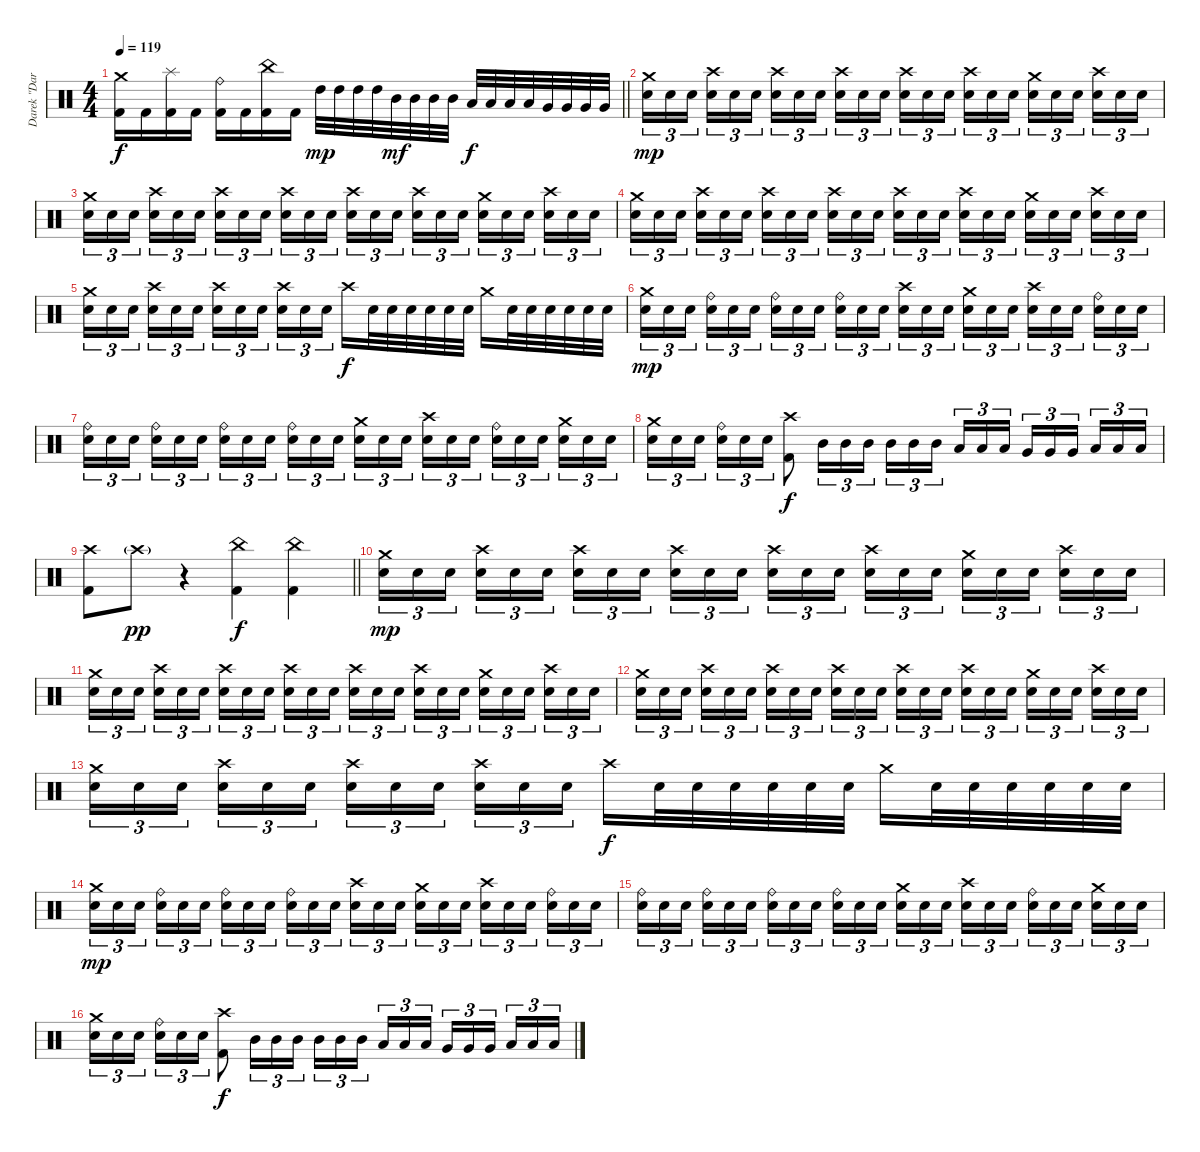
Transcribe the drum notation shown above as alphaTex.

\track ("Darek \"Daray\" Brzozowski " "Darek \"Dar") {instrument percussion}
\staff {score}
\articulation defaults
\ts (4 4)
\tempo 119
\clef neutral
\barLineRight lightlight
\ks c
("Crash medium (hit)" "Kick (hit) 2").16{dy f} "Kick (hit) 2".16 ("Splash (hit)" "Kick (hit) 2").16 "Kick (hit) 2".16 ("Ride (bell)" "Kick (hit) 2").16 "Kick (hit) 2".16 ("China (hit)" "Kick (hit) 2").16 "Kick (hit) 2".16 "High Tom (hit)".32{dy mp} "High Tom (hit)".32 "High Tom (hit)".32 "High Tom (hit)".32 "Mid Tom (hit)".32{dy mf} "Mid Tom (hit)".32 "Mid Tom (hit)".32 "Mid Tom (hit)".32 "Low Tom (hit)".32{dy f} "Low Tom (hit)".32 "Low Tom (hit)".32 "Low Tom (hit)".32 "Very Low Tom (hit)".32 "Very Low Tom (hit)".32 "Very Low Tom (hit)".32 "Very Low Tom (hit)".32 |
("Crash medium (hit)" "Electric Snare (hit)").16{tu (3 2) dy mp} "Electric Snare (hit)".16{tu (3 2)} "Electric Snare (hit)".16{tu (3 2) beam splitsecondary} ("Crash high (hit)" "Electric Snare (hit)").16{tu (3 2)} "Electric Snare (hit)".16{tu (3 2)} "Electric Snare (hit)".16{tu (3 2)} ("Crash high (hit)" "Electric Snare (hit)").16{tu (3 2)} "Electric Snare (hit)".16{tu (3 2)} "Electric Snare (hit)".16{tu (3 2) beam splitsecondary} ("Crash high (hit)" "Electric Snare (hit)").16{tu (3 2)} "Electric Snare (hit)".16{tu (3 2)} "Electric Snare (hit)".16{tu (3 2)} ("Crash high (hit)" "Electric Snare (hit)").16{tu (3 2)} "Electric Snare (hit)".16{tu (3 2)} "Electric Snare (hit)".16{tu (3 2) beam splitsecondary} ("Crash high (hit)" "Electric Snare (hit)").16{tu (3 2)} "Electric Snare (hit)".16{tu (3 2)} "Electric Snare (hit)".16{tu (3 2)} ("Crash medium (hit)" "Electric Snare (hit)").16{tu (3 2)} "Electric Snare (hit)".16{tu (3 2)} "Electric Snare (hit)".16{tu (3 2) beam splitsecondary} ("Crash high (hit)" "Electric Snare (hit)").16{tu (3 2)} "Electric Snare (hit)".16{tu (3 2)} "Electric Snare (hit)".16{tu (3 2)} |
("Crash medium (hit)" "Electric Snare (hit)").16{tu (3 2)} "Electric Snare (hit)".16{tu (3 2)} "Electric Snare (hit)".16{tu (3 2) beam splitsecondary} ("Crash high (hit)" "Electric Snare (hit)").16{tu (3 2)} "Electric Snare (hit)".16{tu (3 2)} "Electric Snare (hit)".16{tu (3 2)} ("Crash high (hit)" "Electric Snare (hit)").16{tu (3 2)} "Electric Snare (hit)".16{tu (3 2)} "Electric Snare (hit)".16{tu (3 2) beam splitsecondary} ("Crash high (hit)" "Electric Snare (hit)").16{tu (3 2)} "Electric Snare (hit)".16{tu (3 2)} "Electric Snare (hit)".16{tu (3 2)} ("Crash high (hit)" "Electric Snare (hit)").16{tu (3 2)} "Electric Snare (hit)".16{tu (3 2)} "Electric Snare (hit)".16{tu (3 2) beam splitsecondary} ("Crash high (hit)" "Electric Snare (hit)").16{tu (3 2)} "Electric Snare (hit)".16{tu (3 2)} "Electric Snare (hit)".16{tu (3 2)} ("Crash medium (hit)" "Electric Snare (hit)").16{tu (3 2)} "Electric Snare (hit)".16{tu (3 2)} "Electric Snare (hit)".16{tu (3 2) beam splitsecondary} ("Crash high (hit)" "Electric Snare (hit)").16{tu (3 2)} "Electric Snare (hit)".16{tu (3 2)} "Electric Snare (hit)".16{tu (3 2)} |
("Crash medium (hit)" "Electric Snare (hit)").16{tu (3 2)} "Electric Snare (hit)".16{tu (3 2)} "Electric Snare (hit)".16{tu (3 2) beam splitsecondary} ("Crash high (hit)" "Electric Snare (hit)").16{tu (3 2)} "Electric Snare (hit)".16{tu (3 2)} "Electric Snare (hit)".16{tu (3 2)} ("Crash high (hit)" "Electric Snare (hit)").16{tu (3 2)} "Electric Snare (hit)".16{tu (3 2)} "Electric Snare (hit)".16{tu (3 2) beam splitsecondary} ("Crash high (hit)" "Electric Snare (hit)").16{tu (3 2)} "Electric Snare (hit)".16{tu (3 2)} "Electric Snare (hit)".16{tu (3 2)} ("Crash high (hit)" "Electric Snare (hit)").16{tu (3 2)} "Electric Snare (hit)".16{tu (3 2)} "Electric Snare (hit)".16{tu (3 2) beam splitsecondary} ("Crash high (hit)" "Electric Snare (hit)").16{tu (3 2)} "Electric Snare (hit)".16{tu (3 2)} "Electric Snare (hit)".16{tu (3 2)} ("Crash medium (hit)" "Electric Snare (hit)").16{tu (3 2)} "Electric Snare (hit)".16{tu (3 2)} "Electric Snare (hit)".16{tu (3 2) beam splitsecondary} ("Crash high (hit)" "Electric Snare (hit)").16{tu (3 2)} "Electric Snare (hit)".16{tu (3 2)} "Electric Snare (hit)".16{tu (3 2)} |
("Crash medium (hit)" "Electric Snare (hit)").16{tu (3 2)} "Electric Snare (hit)".16{tu (3 2)} "Electric Snare (hit)".16{tu (3 2) beam splitsecondary} ("Crash high (hit)" "Electric Snare (hit)").16{tu (3 2)} "Electric Snare (hit)".16{tu (3 2)} "Electric Snare (hit)".16{tu (3 2)} ("Crash high (hit)" "Electric Snare (hit)").16{tu (3 2)} "Electric Snare (hit)".16{tu (3 2)} "Electric Snare (hit)".16{tu (3 2) beam splitsecondary} ("Crash high (hit)" "Electric Snare (hit)").16{tu (3 2)} "Electric Snare (hit)".16{tu (3 2)} "Electric Snare (hit)".16{tu (3 2)} "Crash high (hit)".16{dy f} "Electric Snare (hit)".32 "Electric Snare (hit)".32 "Electric Snare (hit)".32 "Electric Snare (hit)".32 "Electric Snare (hit)".32 "Electric Snare (hit)".32 "Crash medium (hit)".16 "Electric Snare (hit)".32 "Electric Snare (hit)".32 "Electric Snare (hit)".32 "Electric Snare (hit)".32 "Electric Snare (hit)".32 "Electric Snare (hit)".32 |
("Crash medium (hit)" "Electric Snare (hit)").16{tu (3 2) dy mp} "Electric Snare (hit)".16{tu (3 2)} "Electric Snare (hit)".16{tu (3 2) beam splitsecondary} ("Ride (bell)" "Electric Snare (hit)").16{tu (3 2)} "Electric Snare (hit)".16{tu (3 2)} "Electric Snare (hit)".16{tu (3 2)} ("Ride (bell)" "Electric Snare (hit)").16{tu (3 2)} "Electric Snare (hit)".16{tu (3 2)} "Electric Snare (hit)".16{tu (3 2) beam splitsecondary} ("Ride (bell)" "Electric Snare (hit)").16{tu (3 2)} "Electric Snare (hit)".16{tu (3 2)} "Electric Snare (hit)".16{tu (3 2)} ("Crash high (hit)" "Electric Snare (hit)").16{tu (3 2)} "Electric Snare (hit)".16{tu (3 2)} "Electric Snare (hit)".16{tu (3 2) beam splitsecondary} ("Crash medium (hit)" "Electric Snare (hit)").16{tu (3 2)} "Electric Snare (hit)".16{tu (3 2)} "Electric Snare (hit)".16{tu (3 2)} ("Crash high (hit)" "Electric Snare (hit)").16{tu (3 2)} "Electric Snare (hit)".16{tu (3 2)} "Electric Snare (hit)".16{tu (3 2) beam splitsecondary} ("Ride (bell)" "Electric Snare (hit)").16{tu (3 2)} "Electric Snare (hit)".16{tu (3 2)} "Electric Snare (hit)".16{tu (3 2)} |
("Ride (bell)" "Electric Snare (hit)").16{tu (3 2)} "Electric Snare (hit)".16{tu (3 2)} "Electric Snare (hit)".16{tu (3 2) beam splitsecondary} ("Ride (bell)" "Electric Snare (hit)").16{tu (3 2)} "Electric Snare (hit)".16{tu (3 2)} "Electric Snare (hit)".16{tu (3 2)} ("Ride (bell)" "Electric Snare (hit)").16{tu (3 2)} "Electric Snare (hit)".16{tu (3 2)} "Electric Snare (hit)".16{tu (3 2) beam splitsecondary} ("Ride (bell)" "Electric Snare (hit)").16{tu (3 2)} "Electric Snare (hit)".16{tu (3 2)} "Electric Snare (hit)".16{tu (3 2)} ("Crash medium (hit)" "Electric Snare (hit)").16{tu (3 2)} "Electric Snare (hit)".16{tu (3 2)} "Electric Snare (hit)".16{tu (3 2) beam splitsecondary} ("Crash high (hit)" "Electric Snare (hit)").16{tu (3 2)} "Electric Snare (hit)".16{tu (3 2)} "Electric Snare (hit)".16{tu (3 2)} ("Ride (bell)" "Electric Snare (hit)").16{tu (3 2)} "Electric Snare (hit)".16{tu (3 2)} "Electric Snare (hit)".16{tu (3 2) beam splitsecondary} ("Crash medium (hit)" "Electric Snare (hit)").16{tu (3 2)} "Electric Snare (hit)".16{tu (3 2)} "Electric Snare (hit)".16{tu (3 2)} |
("Crash medium (hit)" "Electric Snare (hit)").16{tu (3 2)} "Electric Snare (hit)".16{tu (3 2)} "Electric Snare (hit)".16{tu (3 2) beam splitsecondary} ("Ride (bell)" "Electric Snare (hit)").16{tu (3 2)} "Electric Snare (hit)".16{tu (3 2)} "Electric Snare (hit)".16{tu (3 2)} ("Crash high (hit)" "Kick (hit) 2").8{dy f} "Mid Tom (hit)".16{tu (3 2)} "Mid Tom (hit)".16{tu (3 2)} "Mid Tom (hit)".16{tu (3 2)} "Mid Tom (hit)".16{tu (3 2)} "Mid Tom (hit)".16{tu (3 2)} "Mid Tom (hit)".16{tu (3 2) beam splitsecondary} "Low Tom (hit)".16{tu (3 2)} "Low Tom (hit)".16{tu (3 2)} "Low Tom (hit)".16{tu (3 2)} "Very Low Tom (hit)".16{tu (3 2)} "Very Low Tom (hit)".16{tu (3 2)} "Very Low Tom (hit)".16{tu (3 2) beam splitsecondary} "Low Floor Tom (hit)".16{tu (3 2)} "Low Floor Tom (hit)".16{tu (3 2)} "Low Floor Tom (hit)".16{tu (3 2)} |
\barLineRight lightlight
("Crash high (hit)" "Kick (hit) 2").8 "Crash high (hit)"{g}.8{dy pp} r.4 ("China (hit)" "Kick (hit) 2").4{dy f} ("China (hit)" "Kick (hit) 2").4 |
("Crash medium (hit)" "Electric Snare (hit)").16{tu (3 2) dy mp} "Electric Snare (hit)".16{tu (3 2)} "Electric Snare (hit)".16{tu (3 2) beam splitsecondary} ("Crash high (hit)" "Electric Snare (hit)").16{tu (3 2)} "Electric Snare (hit)".16{tu (3 2)} "Electric Snare (hit)".16{tu (3 2)} ("Crash high (hit)" "Electric Snare (hit)").16{tu (3 2)} "Electric Snare (hit)".16{tu (3 2)} "Electric Snare (hit)".16{tu (3 2) beam splitsecondary} ("Crash high (hit)" "Electric Snare (hit)").16{tu (3 2)} "Electric Snare (hit)".16{tu (3 2)} "Electric Snare (hit)".16{tu (3 2)} ("Crash high (hit)" "Electric Snare (hit)").16{tu (3 2)} "Electric Snare (hit)".16{tu (3 2)} "Electric Snare (hit)".16{tu (3 2) beam splitsecondary} ("Crash high (hit)" "Electric Snare (hit)").16{tu (3 2)} "Electric Snare (hit)".16{tu (3 2)} "Electric Snare (hit)".16{tu (3 2)} ("Crash medium (hit)" "Electric Snare (hit)").16{tu (3 2)} "Electric Snare (hit)".16{tu (3 2)} "Electric Snare (hit)".16{tu (3 2) beam splitsecondary} ("Crash high (hit)" "Electric Snare (hit)").16{tu (3 2)} "Electric Snare (hit)".16{tu (3 2)} "Electric Snare (hit)".16{tu (3 2)} |
("Crash medium (hit)" "Electric Snare (hit)").16{tu (3 2)} "Electric Snare (hit)".16{tu (3 2)} "Electric Snare (hit)".16{tu (3 2) beam splitsecondary} ("Crash high (hit)" "Electric Snare (hit)").16{tu (3 2)} "Electric Snare (hit)".16{tu (3 2)} "Electric Snare (hit)".16{tu (3 2)} ("Crash high (hit)" "Electric Snare (hit)").16{tu (3 2)} "Electric Snare (hit)".16{tu (3 2)} "Electric Snare (hit)".16{tu (3 2) beam splitsecondary} ("Crash high (hit)" "Electric Snare (hit)").16{tu (3 2)} "Electric Snare (hit)".16{tu (3 2)} "Electric Snare (hit)".16{tu (3 2)} ("Crash high (hit)" "Electric Snare (hit)").16{tu (3 2)} "Electric Snare (hit)".16{tu (3 2)} "Electric Snare (hit)".16{tu (3 2) beam splitsecondary} ("Crash high (hit)" "Electric Snare (hit)").16{tu (3 2)} "Electric Snare (hit)".16{tu (3 2)} "Electric Snare (hit)".16{tu (3 2)} ("Crash medium (hit)" "Electric Snare (hit)").16{tu (3 2)} "Electric Snare (hit)".16{tu (3 2)} "Electric Snare (hit)".16{tu (3 2) beam splitsecondary} ("Crash high (hit)" "Electric Snare (hit)").16{tu (3 2)} "Electric Snare (hit)".16{tu (3 2)} "Electric Snare (hit)".16{tu (3 2)} |
("Crash medium (hit)" "Electric Snare (hit)").16{tu (3 2)} "Electric Snare (hit)".16{tu (3 2)} "Electric Snare (hit)".16{tu (3 2) beam splitsecondary} ("Crash high (hit)" "Electric Snare (hit)").16{tu (3 2)} "Electric Snare (hit)".16{tu (3 2)} "Electric Snare (hit)".16{tu (3 2)} ("Crash high (hit)" "Electric Snare (hit)").16{tu (3 2)} "Electric Snare (hit)".16{tu (3 2)} "Electric Snare (hit)".16{tu (3 2) beam splitsecondary} ("Crash high (hit)" "Electric Snare (hit)").16{tu (3 2)} "Electric Snare (hit)".16{tu (3 2)} "Electric Snare (hit)".16{tu (3 2)} ("Crash high (hit)" "Electric Snare (hit)").16{tu (3 2)} "Electric Snare (hit)".16{tu (3 2)} "Electric Snare (hit)".16{tu (3 2) beam splitsecondary} ("Crash high (hit)" "Electric Snare (hit)").16{tu (3 2)} "Electric Snare (hit)".16{tu (3 2)} "Electric Snare (hit)".16{tu (3 2)} ("Crash medium (hit)" "Electric Snare (hit)").16{tu (3 2)} "Electric Snare (hit)".16{tu (3 2)} "Electric Snare (hit)".16{tu (3 2) beam splitsecondary} ("Crash high (hit)" "Electric Snare (hit)").16{tu (3 2)} "Electric Snare (hit)".16{tu (3 2)} "Electric Snare (hit)".16{tu (3 2)} |
("Crash medium (hit)" "Electric Snare (hit)").16{tu (3 2)} "Electric Snare (hit)".16{tu (3 2)} "Electric Snare (hit)".16{tu (3 2) beam splitsecondary} ("Crash high (hit)" "Electric Snare (hit)").16{tu (3 2)} "Electric Snare (hit)".16{tu (3 2)} "Electric Snare (hit)".16{tu (3 2)} ("Crash high (hit)" "Electric Snare (hit)").16{tu (3 2)} "Electric Snare (hit)".16{tu (3 2)} "Electric Snare (hit)".16{tu (3 2) beam splitsecondary} ("Crash high (hit)" "Electric Snare (hit)").16{tu (3 2)} "Electric Snare (hit)".16{tu (3 2)} "Electric Snare (hit)".16{tu (3 2)} "Crash high (hit)".16{dy f} "Electric Snare (hit)".32 "Electric Snare (hit)".32 "Electric Snare (hit)".32 "Electric Snare (hit)".32 "Electric Snare (hit)".32 "Electric Snare (hit)".32 "Crash medium (hit)".16 "Electric Snare (hit)".32 "Electric Snare (hit)".32 "Electric Snare (hit)".32 "Electric Snare (hit)".32 "Electric Snare (hit)".32 "Electric Snare (hit)".32 |
("Crash medium (hit)" "Electric Snare (hit)").16{tu (3 2) dy mp} "Electric Snare (hit)".16{tu (3 2)} "Electric Snare (hit)".16{tu (3 2) beam splitsecondary} ("Ride (bell)" "Electric Snare (hit)").16{tu (3 2)} "Electric Snare (hit)".16{tu (3 2)} "Electric Snare (hit)".16{tu (3 2)} ("Ride (bell)" "Electric Snare (hit)").16{tu (3 2)} "Electric Snare (hit)".16{tu (3 2)} "Electric Snare (hit)".16{tu (3 2) beam splitsecondary} ("Ride (bell)" "Electric Snare (hit)").16{tu (3 2)} "Electric Snare (hit)".16{tu (3 2)} "Electric Snare (hit)".16{tu (3 2)} ("Crash high (hit)" "Electric Snare (hit)").16{tu (3 2)} "Electric Snare (hit)".16{tu (3 2)} "Electric Snare (hit)".16{tu (3 2) beam splitsecondary} ("Crash medium (hit)" "Electric Snare (hit)").16{tu (3 2)} "Electric Snare (hit)".16{tu (3 2)} "Electric Snare (hit)".16{tu (3 2)} ("Crash high (hit)" "Electric Snare (hit)").16{tu (3 2)} "Electric Snare (hit)".16{tu (3 2)} "Electric Snare (hit)".16{tu (3 2) beam splitsecondary} ("Ride (bell)" "Electric Snare (hit)").16{tu (3 2)} "Electric Snare (hit)".16{tu (3 2)} "Electric Snare (hit)".16{tu (3 2)} |
("Ride (bell)" "Electric Snare (hit)").16{tu (3 2)} "Electric Snare (hit)".16{tu (3 2)} "Electric Snare (hit)".16{tu (3 2) beam splitsecondary} ("Ride (bell)" "Electric Snare (hit)").16{tu (3 2)} "Electric Snare (hit)".16{tu (3 2)} "Electric Snare (hit)".16{tu (3 2)} ("Ride (bell)" "Electric Snare (hit)").16{tu (3 2)} "Electric Snare (hit)".16{tu (3 2)} "Electric Snare (hit)".16{tu (3 2) beam splitsecondary} ("Ride (bell)" "Electric Snare (hit)").16{tu (3 2)} "Electric Snare (hit)".16{tu (3 2)} "Electric Snare (hit)".16{tu (3 2)} ("Crash medium (hit)" "Electric Snare (hit)").16{tu (3 2)} "Electric Snare (hit)".16{tu (3 2)} "Electric Snare (hit)".16{tu (3 2) beam splitsecondary} ("Crash high (hit)" "Electric Snare (hit)").16{tu (3 2)} "Electric Snare (hit)".16{tu (3 2)} "Electric Snare (hit)".16{tu (3 2)} ("Ride (bell)" "Electric Snare (hit)").16{tu (3 2)} "Electric Snare (hit)".16{tu (3 2)} "Electric Snare (hit)".16{tu (3 2) beam splitsecondary} ("Crash medium (hit)" "Electric Snare (hit)").16{tu (3 2)} "Electric Snare (hit)".16{tu (3 2)} "Electric Snare (hit)".16{tu (3 2)} |
("Crash medium (hit)" "Electric Snare (hit)").16{tu (3 2)} "Electric Snare (hit)".16{tu (3 2)} "Electric Snare (hit)".16{tu (3 2) beam splitsecondary} ("Ride (bell)" "Electric Snare (hit)").16{tu (3 2)} "Electric Snare (hit)".16{tu (3 2)} "Electric Snare (hit)".16{tu (3 2)} ("Crash high (hit)" "Kick (hit) 2").8{dy f} "Mid Tom (hit)".16{tu (3 2)} "Mid Tom (hit)".16{tu (3 2)} "Mid Tom (hit)".16{tu (3 2)} "Mid Tom (hit)".16{tu (3 2)} "Mid Tom (hit)".16{tu (3 2)} "Mid Tom (hit)".16{tu (3 2) beam splitsecondary} "Low Tom (hit)".16{tu (3 2)} "Low Tom (hit)".16{tu (3 2)} "Low Tom (hit)".16{tu (3 2)} "Very Low Tom (hit)".16{tu (3 2)} "Very Low Tom (hit)".16{tu (3 2)} "Very Low Tom (hit)".16{tu (3 2) beam splitsecondary} "Low Floor Tom (hit)".16{tu (3 2)} "Low Floor Tom (hit)".16{tu (3 2)} "Low Floor Tom (hit)".16{tu (3 2)}
